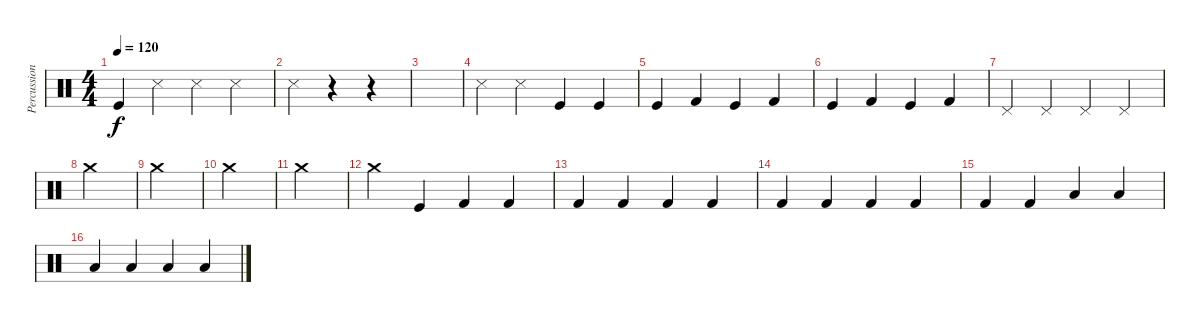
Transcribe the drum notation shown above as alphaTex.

\track ("Percussions" "Percussion") {instrument percussion}
\staff {score}
\articulation defaults
\ts (4 4)
\tempo 120
\clef neutral
\ks c "Kick (hit)".4{dy f} "Metronome (hit)".4 "Metronome (hit)".4 "Metronome (hit)".4
|
"Metronome (hit)".4 r.4 r.4 |
|
"Metronome (hit)".4 "Metronome (hit)".4 "Kick (hit)".4 "Kick (hit)".4 |
"Kick (hit)".4 "Kick (hit) 2".4 "Kick (hit)".4 "Kick (hit) 2".4 |
"Kick (hit)".4 "Kick (hit) 2".4 "Kick (hit)".4 "Kick (hit) 2".4 |
"Pedal Hi-Hat (hit)".4 "Pedal Hi-Hat (hit)".4 "Pedal Hi-Hat (hit)".4 "Pedal Hi-Hat (hit)".4 |
"Crash medium (hit)".4 |
"Crash medium (hit)".4 |
"Crash medium (hit)".4 |
"Crash medium (hit)".4 |
"Crash medium (hit)".4 "Kick (hit)".4 "Kick (hit) 2".4 "Kick (hit) 2".4 |
"Kick (hit) 2".4 "Kick (hit) 2".4 "Kick (hit) 2".4 "Kick (hit) 2".4 |
"Kick (hit) 2".4 "Kick (hit) 2".4 "Kick (hit) 2".4 "Kick (hit) 2".4 |
"Kick (hit) 2".4 "Kick (hit) 2".4 "Low Tom (hit)".4 "Low Tom (hit)".4 |
"Low Tom (hit)".4 "Low Tom (hit)".4 "Low Tom (hit)".4 "Low Tom (hit)".4
